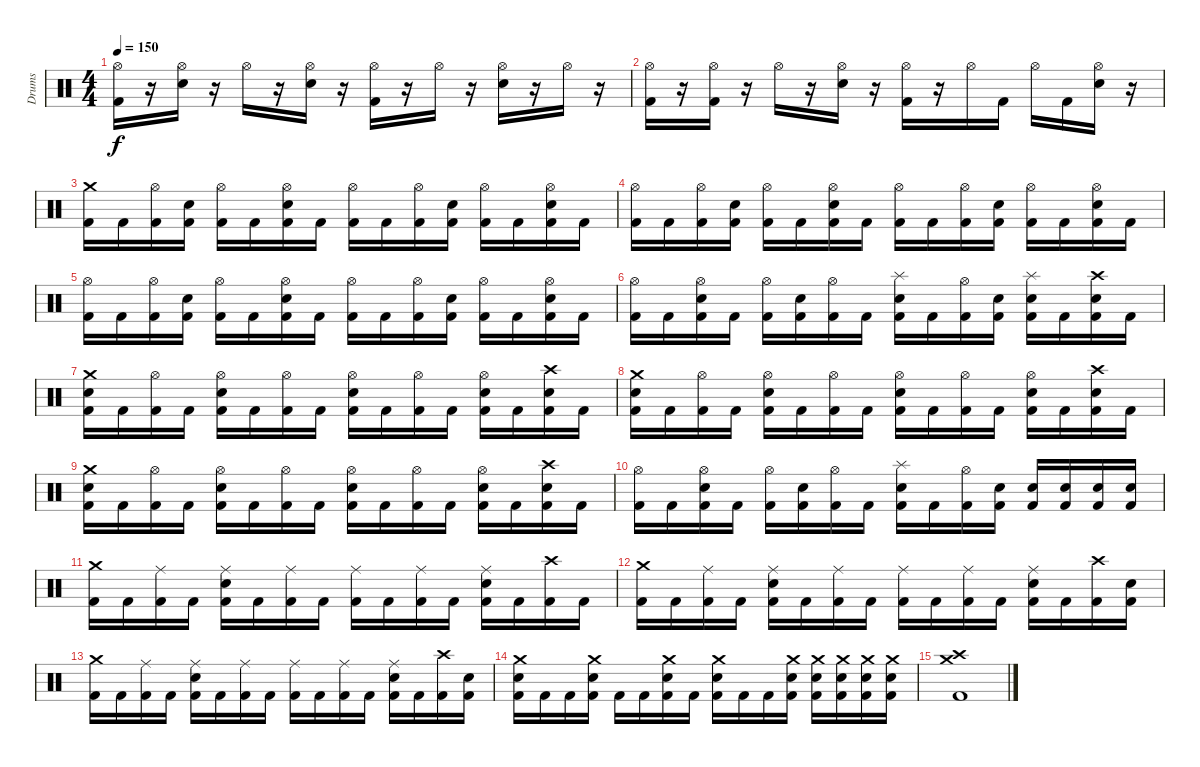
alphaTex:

\track ("Drums" "Drums") {instrument percussion}
\staff {score}
\articulation defaults
\ts (4 4)
\tempo 150
\clef neutral
\ks c
("Hi-Hat (open)" "Kick (hit) 2").16{dy f} r.16 ("Hi-Hat (open)" "Electric Snare (hit)").16 r.16 "Hi-Hat (open)".16 r.16 ("Hi-Hat (open)" "Electric Snare (hit)").16 r.16 ("Hi-Hat (open)" "Kick (hit) 2").16 r.16 "Hi-Hat (open)".16 r.16 ("Hi-Hat (open)" "Electric Snare (hit)").16 r.16 "Hi-Hat (open)".16 r.16 |
("Hi-Hat (open)" "Kick (hit) 2").16 r.16 ("Hi-Hat (open)" "Kick (hit) 2").16 r.16 "Hi-Hat (open)".16 r.16 ("Hi-Hat (open)" "Electric Snare (hit)").16 r.16 ("Hi-Hat (open)" "Kick (hit) 2").16 r.16 "Hi-Hat (open)".16 "Kick (hit) 2".16 "Hi-Hat (open)".16 "Kick (hit) 2".16 ("Hi-Hat (open)" "Electric Snare (hit)").16 r.16 |
("Crash medium (hit)" "Kick (hit) 2").16 "Kick (hit) 2".16 ("Hi-Hat (open)" "Kick (hit) 2").16 ("Electric Snare (hit)" "Kick (hit) 2").16 ("Hi-Hat (open)" "Kick (hit) 2").16 "Kick (hit) 2".16 ("Hi-Hat (open)" "Electric Snare (hit)" "Kick (hit) 2").16 "Kick (hit) 2".16 ("Hi-Hat (open)" "Kick (hit) 2").16 "Kick (hit) 2".16 ("Hi-Hat (open)" "Kick (hit) 2").16 ("Electric Snare (hit)" "Kick (hit) 2").16 ("Hi-Hat (open)" "Kick (hit) 2").16 "Kick (hit) 2".16 ("Hi-Hat (open)" "Electric Snare (hit)" "Kick (hit) 2").16 "Kick (hit) 2".16 |
("Hi-Hat (open)" "Kick (hit) 2").16 "Kick (hit) 2".16 ("Hi-Hat (open)" "Kick (hit) 2").16 ("Electric Snare (hit)" "Kick (hit) 2").16 ("Hi-Hat (open)" "Kick (hit) 2").16 "Kick (hit) 2".16 ("Hi-Hat (open)" "Electric Snare (hit)" "Kick (hit) 2").16 "Kick (hit) 2".16 ("Hi-Hat (open)" "Kick (hit) 2").16 "Kick (hit) 2".16 ("Hi-Hat (open)" "Kick (hit) 2").16 ("Electric Snare (hit)" "Kick (hit) 2").16 ("Hi-Hat (open)" "Kick (hit) 2").16 "Kick (hit) 2".16 ("Hi-Hat (open)" "Electric Snare (hit)" "Kick (hit) 2").16 "Kick (hit) 2".16 |
("Hi-Hat (open)" "Kick (hit) 2").16 "Kick (hit) 2".16 ("Hi-Hat (open)" "Kick (hit) 2").16 ("Electric Snare (hit)" "Kick (hit) 2").16 ("Hi-Hat (open)" "Kick (hit) 2").16 "Kick (hit) 2".16 ("Hi-Hat (open)" "Electric Snare (hit)" "Kick (hit) 2").16 "Kick (hit) 2".16 ("Hi-Hat (open)" "Kick (hit) 2").16 "Kick (hit) 2".16 ("Hi-Hat (open)" "Kick (hit) 2").16 ("Electric Snare (hit)" "Kick (hit) 2").16 ("Hi-Hat (open)" "Kick (hit) 2").16 "Kick (hit) 2".16 ("Hi-Hat (open)" "Electric Snare (hit)" "Kick (hit) 2").16 "Kick (hit) 2".16 |
("Hi-Hat (open)" "Kick (hit) 2").16 "Kick (hit) 2".16 ("Hi-Hat (open)" "Electric Snare (hit)" "Kick (hit) 2").16 "Kick (hit) 2".16 ("Hi-Hat (open)" "Kick (hit) 2").16 ("Electric Snare (hit)" "Kick (hit) 2").16 ("Hi-Hat (open)" "Kick (hit) 2").16 "Kick (hit) 2".16 ("Splash (hit)" "Electric Snare (hit)" "Kick (hit) 2").16 "Kick (hit) 2".16 ("Hi-Hat (open)" "Kick (hit) 2").16 ("Electric Snare (hit)" "Kick (hit) 2").16 ("Splash (hit)" "Electric Snare (hit)" "Kick (hit) 2").16 "Kick (hit) 2".16 ("Crash high (hit)" "Electric Snare (hit)" "Kick (hit) 2").16 "Kick (hit) 2".16 |
("Crash medium (hit)" "Electric Snare (hit)" "Kick (hit) 2").16 "Kick (hit) 2".16 ("Hi-Hat (open)" "Kick (hit) 2").16 "Kick (hit) 2".16 ("Hi-Hat (open)" "Electric Snare (hit)" "Kick (hit) 2").16 "Kick (hit) 2".16 ("Hi-Hat (open)" "Kick (hit) 2").16 "Kick (hit) 2".16 ("Hi-Hat (open)" "Electric Snare (hit)" "Kick (hit) 2").16 "Kick (hit) 2".16 ("Hi-Hat (open)" "Kick (hit) 2").16 "Kick (hit) 2".16 ("Hi-Hat (open)" "Electric Snare (hit)" "Kick (hit) 2").16 "Kick (hit) 2".16 ("Crash high (hit)" "Electric Snare (hit)" "Kick (hit) 2").16 "Kick (hit) 2".16 |
("Crash medium (hit)" "Electric Snare (hit)" "Kick (hit) 2").16 "Kick (hit) 2".16 ("Hi-Hat (open)" "Kick (hit) 2").16 "Kick (hit) 2".16 ("Hi-Hat (open)" "Electric Snare (hit)" "Kick (hit) 2").16 "Kick (hit) 2".16 ("Hi-Hat (open)" "Kick (hit) 2").16 "Kick (hit) 2".16 ("Hi-Hat (open)" "Electric Snare (hit)" "Kick (hit) 2").16 "Kick (hit) 2".16 ("Hi-Hat (open)" "Kick (hit) 2").16 "Kick (hit) 2".16 ("Hi-Hat (open)" "Electric Snare (hit)" "Kick (hit) 2").16 "Kick (hit) 2".16 ("Crash high (hit)" "Electric Snare (hit)" "Kick (hit) 2").16 "Kick (hit) 2".16 |
("Crash medium (hit)" "Electric Snare (hit)" "Kick (hit) 2").16 "Kick (hit) 2".16 ("Hi-Hat (open)" "Kick (hit) 2").16 "Kick (hit) 2".16 ("Hi-Hat (open)" "Electric Snare (hit)" "Kick (hit) 2").16 "Kick (hit) 2".16 ("Hi-Hat (open)" "Kick (hit) 2").16 "Kick (hit) 2".16 ("Hi-Hat (open)" "Electric Snare (hit)" "Kick (hit) 2").16 "Kick (hit) 2".16 ("Hi-Hat (open)" "Kick (hit) 2").16 "Kick (hit) 2".16 ("Hi-Hat (open)" "Electric Snare (hit)" "Kick (hit) 2").16 "Kick (hit) 2".16 ("Crash high (hit)" "Electric Snare (hit)" "Kick (hit) 2").16 "Kick (hit) 2".16 |
("Hi-Hat (open)" "Kick (hit) 2").16 "Kick (hit) 2".16 ("Hi-Hat (open)" "Electric Snare (hit)" "Kick (hit) 2").16 "Kick (hit) 2".16 ("Hi-Hat (open)" "Kick (hit) 2").16 ("Electric Snare (hit)" "Kick (hit) 2").16 ("Hi-Hat (open)" "Kick (hit) 2").16 "Kick (hit) 2".16 ("Splash (hit)" "Electric Snare (hit)" "Kick (hit) 2").16 "Kick (hit) 2".16 ("Hi-Hat (open)" "Kick (hit) 2").16 ("Electric Snare (hit)" "Kick (hit) 2").16 ("Electric Snare (hit)" "Kick (hit) 2").16 ("Electric Snare (hit)" "Kick (hit) 2").16 ("Electric Snare (hit)" "Kick (hit) 2").16 ("Electric Snare (hit)" "Kick (hit) 2").16 |
\section ("" "")
("Crash medium (hit)" "Kick (hit) 2").16 "Kick (hit) 2".16 ("Ride (middle)" "Kick (hit) 2").16 "Kick (hit) 2".16 ("Ride (middle)" "Electric Snare (hit)" "Kick (hit) 2").16 "Kick (hit) 2".16 ("Ride (middle)" "Kick (hit) 2").16 "Kick (hit) 2".16 ("Ride (middle)" "Kick (hit) 2").16 "Kick (hit) 2".16 ("Ride (middle)" "Kick (hit) 2").16 "Kick (hit) 2".16 ("Ride (middle)" "Electric Snare (hit)" "Kick (hit) 2").16 "Kick (hit) 2".16 ("Crash high (hit)" "Kick (hit) 2").16 "Kick (hit) 2".16 |
("Crash medium (hit)" "Kick (hit) 2").16 "Kick (hit) 2".16 ("Ride (middle)" "Kick (hit) 2").16 "Kick (hit) 2".16 ("Ride (middle)" "Electric Snare (hit)" "Kick (hit) 2").16 "Kick (hit) 2".16 ("Ride (middle)" "Kick (hit) 2").16 "Kick (hit) 2".16 ("Ride (middle)" "Kick (hit) 2").16 "Kick (hit) 2".16 ("Ride (middle)" "Kick (hit) 2").16 "Kick (hit) 2".16 ("Ride (middle)" "Electric Snare (hit)" "Kick (hit) 2").16 "Kick (hit) 2".16 ("Crash high (hit)" "Kick (hit) 2").16 ("Electric Snare (hit)" "Kick (hit) 2").16 |
("Crash medium (hit)" "Kick (hit) 2").16 "Kick (hit) 2".16 ("Ride (middle)" "Kick (hit) 2").16 "Kick (hit) 2".16 ("Ride (middle)" "Electric Snare (hit)" "Kick (hit) 2").16 "Kick (hit) 2".16 ("Ride (middle)" "Kick (hit) 2").16 "Kick (hit) 2".16 ("Ride (middle)" "Kick (hit) 2").16 "Kick (hit) 2".16 ("Ride (middle)" "Kick (hit) 2").16 "Kick (hit) 2".16 ("Ride (middle)" "Electric Snare (hit)" "Kick (hit) 2").16 "Kick (hit) 2".16 ("Crash high (hit)" "Kick (hit) 2").16 ("Electric Snare (hit)" "Kick (hit) 2").16 |
("Crash medium (hit)" "Electric Snare (hit)" "Kick (hit) 2").16 "Kick (hit) 2".16 "Kick (hit) 2".16 ("Crash medium (hit)" "Electric Snare (hit)" "Kick (hit) 2").16 "Kick (hit) 2".16 "Kick (hit) 2".16 ("Crash medium (hit)" "Electric Snare (hit)" "Kick (hit) 2").16 "Kick (hit) 2".16 ("Crash medium (hit)" "Electric Snare (hit)" "Kick (hit) 2").16 "Kick (hit) 2".16 "Kick (hit) 2".16 ("Crash medium (hit)" "Electric Snare (hit)" "Kick (hit) 2").16 ("Crash medium (hit)" "Electric Snare (hit)" "Kick (hit) 2").16 ("Crash medium (hit)" "Electric Snare (hit)" "Kick (hit) 2").16 ("Crash medium (hit)" "Electric Snare (hit)" "Kick (hit) 2").16 ("Crash medium (hit)" "Electric Snare (hit)" "Kick (hit) 2").16 |
("Crash medium (hit)" "Crash high (hit)" "Kick (hit) 2").1
